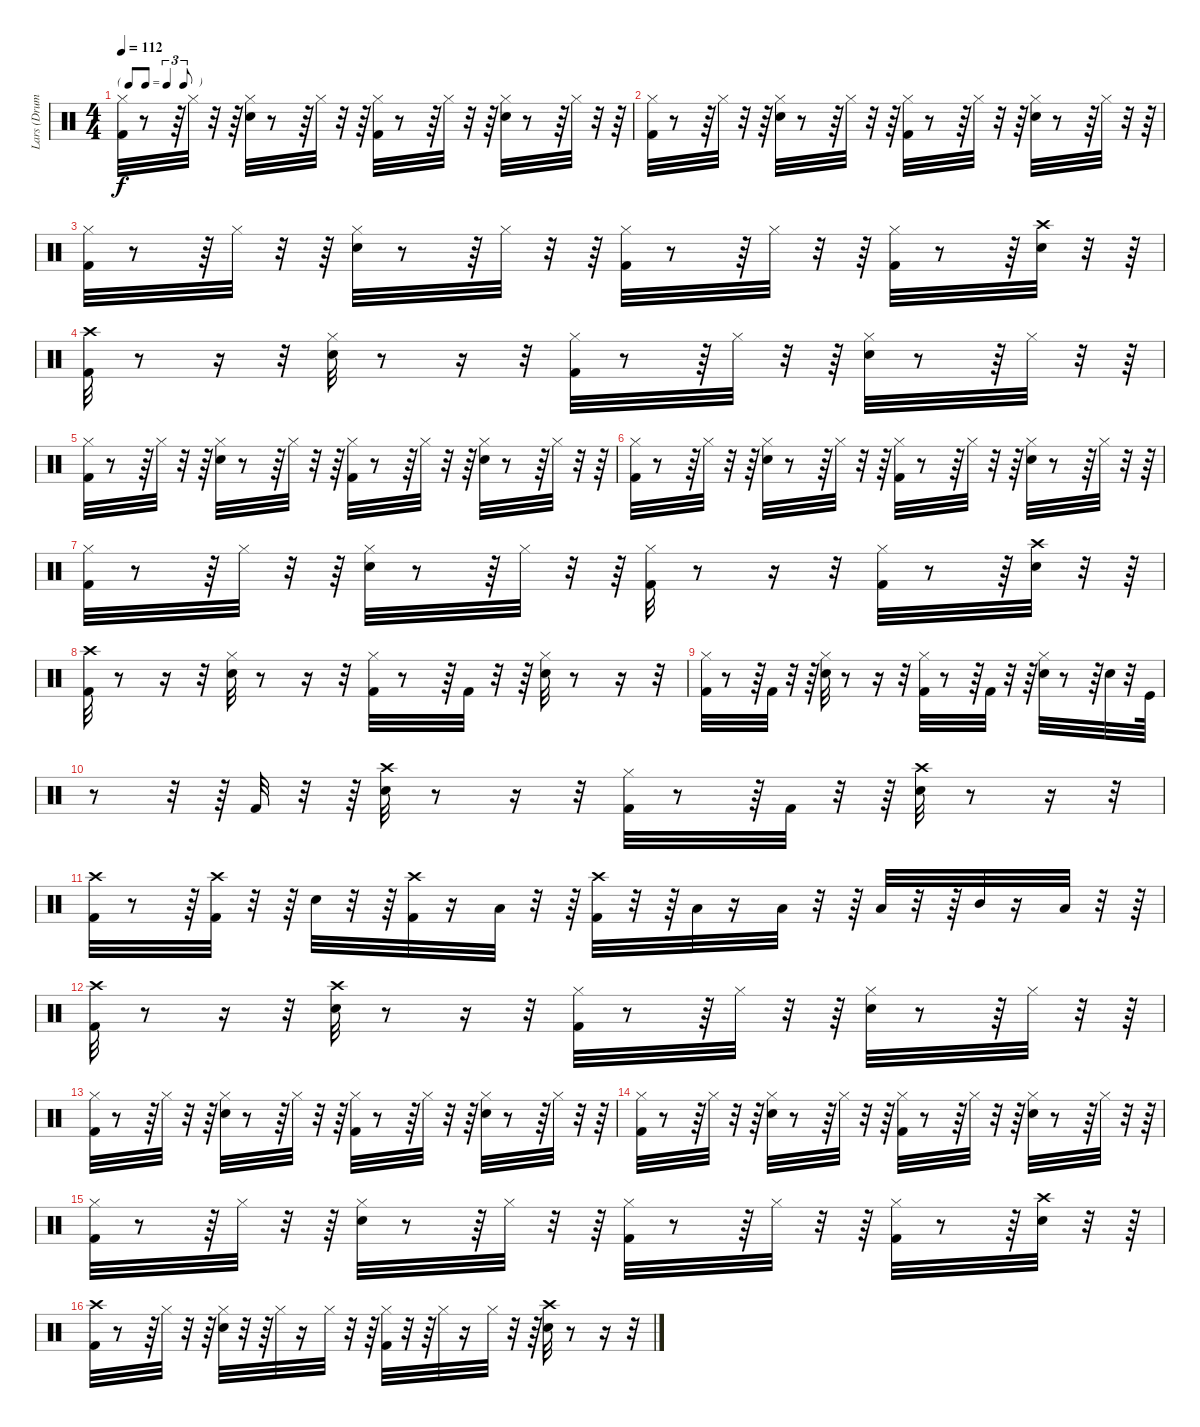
\track ("Lars (Drums)" "Lars (Drum") {instrument percussion}
\staff {score}
\articulation defaults
\ts (4 4)
\tf triplet8th
\tempo 112
\clef neutral
\ks c
("Hi-Hat (closed)" "Kick (hit) 2").32{dy f} r.8 r.64 "Hi-Hat (closed)".32 r.32 r.64 ("Snare (hit) 2" "Hi-Hat (closed)").32 r.8 r.64 "Hi-Hat (closed)".32 r.32 r.64 ("Kick (hit) 2" "Hi-Hat (closed)").32 r.8 r.64 "Hi-Hat (closed)".32 r.32 r.64 ("Snare (hit) 2" "Hi-Hat (closed)").32 r.8 r.64 "Hi-Hat (closed)".32 r.32 r.64 |
("Hi-Hat (closed)" "Kick (hit) 2").32 r.8 r.64 "Hi-Hat (closed)".32 r.32 r.64 ("Snare (hit) 2" "Hi-Hat (closed)").32 r.8 r.64 "Hi-Hat (closed)".32 r.32 r.64 ("Kick (hit) 2" "Hi-Hat (closed)").32 r.8 r.64 "Hi-Hat (closed)".32 r.32 r.64 ("Snare (hit) 2" "Hi-Hat (closed)").32 r.8 r.64 "Hi-Hat (closed)".32 r.32 r.64 |
("Hi-Hat (closed)" "Kick (hit) 2").32 r.8 r.64 "Hi-Hat (closed)".32 r.32 r.64 ("Snare (hit) 2" "Hi-Hat (closed)").32 r.8 r.64 "Hi-Hat (closed)".32 r.32 r.64 ("Kick (hit) 2" "Hi-Hat (closed)").32 r.8 r.64 "Hi-Hat (closed)".32 r.32 r.64 ("Hi-Hat (closed)" "Kick (hit) 2").32 r.8 r.64 ("Snare (hit) 2" "Crash high (hit)").32 r.32 r.64 |
("Crash high (hit)" "Kick (hit) 2").32 r.8 r.16 r.32 ("Hi-Hat (closed)" "Snare (hit) 2").32 r.8 r.16 r.32 ("Hi-Hat (closed)" "Kick (hit) 2").32 r.8 r.64 "Hi-Hat (closed)".32 r.32 r.64 ("Hi-Hat (closed)" "Snare (hit) 2").32 r.8 r.64 "Hi-Hat (closed)".32 r.32 r.64 |
("Hi-Hat (closed)" "Kick (hit) 2").32 r.8 r.64 "Hi-Hat (closed)".32 r.32 r.64 ("Snare (hit) 2" "Hi-Hat (closed)").32 r.8 r.64 "Hi-Hat (closed)".32 r.32 r.64 ("Kick (hit) 2" "Hi-Hat (closed)").32 r.8 r.64 "Hi-Hat (closed)".32 r.32 r.64 ("Snare (hit) 2" "Hi-Hat (closed)").32 r.8 r.64 "Hi-Hat (closed)".32 r.32 r.64 |
("Hi-Hat (closed)" "Kick (hit) 2").32 r.8 r.64 "Hi-Hat (closed)".32 r.32 r.64 ("Snare (hit) 2" "Hi-Hat (closed)").32 r.8 r.64 "Hi-Hat (closed)".32 r.32 r.64 ("Kick (hit) 2" "Hi-Hat (closed)").32 r.8 r.64 "Hi-Hat (closed)".32 r.32 r.64 ("Snare (hit) 2" "Hi-Hat (closed)").32 r.8 r.64 "Hi-Hat (closed)".32 r.32 r.64 |
("Hi-Hat (closed)" "Kick (hit) 2").32 r.8 r.64 "Hi-Hat (closed)".32 r.32 r.64 ("Snare (hit) 2" "Hi-Hat (closed)").32 r.8 r.64 "Hi-Hat (closed)".32 r.32 r.64 ("Kick (hit) 2" "Hi-Hat (closed)").32 r.8 r.16 r.32 ("Hi-Hat (closed)" "Kick (hit) 2").32 r.8 r.64 ("Snare (hit) 2" "Crash high (hit)").32 r.32 r.64 |
("Crash high (hit)" "Kick (hit) 2").32 r.8 r.16 r.32 ("Snare (hit) 2" "Hi-Hat (closed)").32 r.8 r.16 r.32 ("Hi-Hat (closed)" "Kick (hit) 2").32 r.8 r.64 "Kick (hit) 2".32 r.32 r.64 ("Snare (hit) 2" "Hi-Hat (closed)").32 r.8 r.16 r.32 |
("Hi-Hat (closed)" "Kick (hit) 2").32 r.8 r.64 "Kick (hit) 2".32 r.32 r.64 ("Snare (hit) 2" "Hi-Hat (closed)").32 r.8 r.16 r.32 ("Hi-Hat (closed)" "Kick (hit) 2").32 r.8 r.64 "Kick (hit) 2".32 r.32 r.64 ("Snare (hit) 2" "Hi-Hat (closed)").32 r.8 r.64 "Snare (hit) 2".32 r.32 "Kick (hit)".64 |
r.8 r.32 r.64 "Kick (hit) 2".32 r.32 r.64 ("Crash high (hit)" "Snare (hit) 2").32 r.8 r.16 r.32 ("Kick (hit) 2" "Hi-Hat (closed)").32 r.8 r.64 "Kick (hit) 2".32 r.32 r.64 ("Crash high (hit)" "Snare (hit) 2").32 r.8 r.16 r.32 |
("Crash high (hit)" "Kick (hit) 2").32 r.8 r.64 ("Kick (hit) 2" "Crash high (hit)").32 r.32 r.64 "Snare (hit) 2".32 r.32 r.64 ("Crash high (hit)" "Kick (hit) 2").32 r.16 "Low Tom (hit)".32 r.32 r.64 ("Crash high (hit)" "Kick (hit) 2").32 r.32 r.64 "Low Tom (hit)".32 r.16 "Low Floor Tom (hit)".32 r.32 r.64 "Low Floor Tom (hit)".32 r.32 r.64 "Mid Tom (hit)".32 r.16 "Low Tom (hit)".32 r.32 r.64 |
("Crash high (hit)" "Kick (hit) 2").32 r.8 r.16 r.32 ("Snare (hit) 2" "Crash high (hit)").32 r.8 r.16 r.32 ("Hi-Hat (closed)" "Kick (hit) 2").32 r.8 r.64 "Hi-Hat (closed)".32 r.32 r.64 ("Snare (hit) 2" "Hi-Hat (closed)").32 r.8 r.64 "Hi-Hat (closed)".32 r.32 r.64 |
("Hi-Hat (closed)" "Kick (hit) 2").32 r.8 r.64 "Hi-Hat (closed)".32 r.32 r.64 ("Snare (hit) 2" "Hi-Hat (closed)").32 r.8 r.64 "Hi-Hat (closed)".32 r.32 r.64 ("Hi-Hat (closed)" "Kick (hit) 2").32 r.8 r.64 "Hi-Hat (closed)".32 r.32 r.64 ("Hi-Hat (closed)" "Snare (hit) 2").32 r.8 r.64 "Hi-Hat (closed)".32 r.32 r.64 |
("Hi-Hat (closed)" "Kick (hit) 2").32 r.8 r.64 "Hi-Hat (closed)".32 r.32 r.64 ("Snare (hit) 2" "Hi-Hat (closed)").32 r.8 r.64 "Hi-Hat (closed)".32 r.32 r.64 ("Hi-Hat (closed)" "Kick (hit) 2").32 r.8 r.64 "Hi-Hat (closed)".32 r.32 r.64 ("Hi-Hat (closed)" "Snare (hit) 2").32 r.8 r.64 "Hi-Hat (closed)".32 r.32 r.64 |
("Kick (hit) 2" "Hi-Hat (closed)").32 r.8 r.64 "Hi-Hat (closed)".32 r.32 r.64 ("Snare (hit) 2" "Hi-Hat (closed)").32 r.8 r.64 "Hi-Hat (closed)".32 r.32 r.64 ("Kick (hit) 2" "Hi-Hat (closed)").32 r.8 r.64 "Hi-Hat (closed)".32 r.32 r.64 ("Kick (hit) 2" "Hi-Hat (closed)").32 r.8 r.64 ("Crash high (hit)" "Snare (hit) 2").32 r.32 r.64 |
("Crash high (hit)" "Kick (hit) 2").32 r.8 r.64 "Hi-Hat (closed)".32 r.32 r.64 ("Snare (hit) 2" "Hi-Hat (closed)").32 r.32 r.64 "Hi-Hat (closed)".32 r.16 "Hi-Hat (closed)".32 r.32 r.64 ("Kick (hit) 2" "Hi-Hat (closed)").32 r.32 r.64 "Hi-Hat (closed)".32 r.16 "Hi-Hat (closed)".32 r.32 r.64 ("Snare (hit) 2" "Crash high (hit)").32 r.8 r.16 r.32
